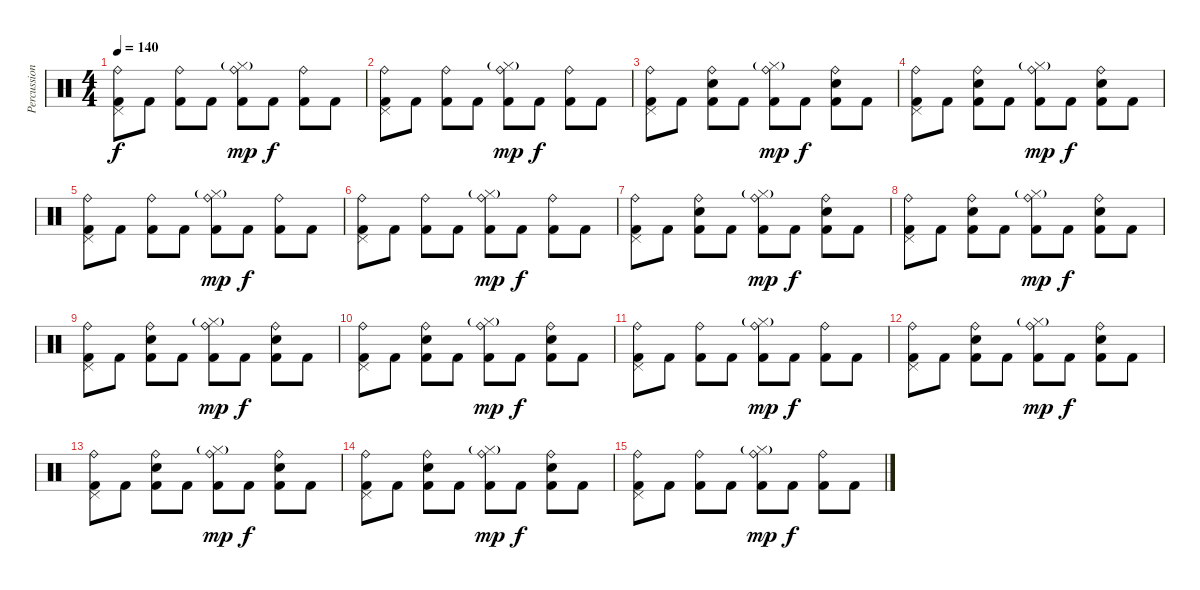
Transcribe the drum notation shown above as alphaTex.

\track ("Percussions" "Percussion") {instrument percussion}
\staff {score}
\articulation defaults
\ts (4 4)
\tempo 140
\clef neutral
\ks c
("Ride (bell)" "Pedal Hi-Hat (hit)" "Kick (hit) 2").8{dy f} "Kick (hit) 2".8 ("Ride (bell)" "Kick (hit) 2").8 "Kick (hit) 2".8 ("Ride (bell)" "Hi-Hat (closed)"{g} "Kick (hit) 2").8{dy mp} "Kick (hit) 2".8{dy f} ("Ride (bell)" "Kick (hit) 2").8 "Kick (hit) 2".8 |
("Ride (bell)" "Pedal Hi-Hat (hit)" "Kick (hit) 2").8 "Kick (hit) 2".8 ("Ride (bell)" "Kick (hit) 2").8 "Kick (hit) 2".8 ("Ride (bell)" "Hi-Hat (closed)"{g} "Kick (hit) 2").8{dy mp} "Kick (hit) 2".8{dy f} ("Ride (bell)" "Kick (hit) 2").8 "Kick (hit) 2".8 |
("Ride (bell)" "Pedal Hi-Hat (hit)" "Kick (hit) 2").8 "Kick (hit) 2".8 ("Ride (bell)" "Snare (hit) 2" "Kick (hit) 2").8 "Kick (hit) 2".8 ("Ride (bell)" "Hi-Hat (closed)"{g} "Kick (hit) 2").8{dy mp} "Kick (hit) 2".8{dy f} ("Ride (bell)" "Snare (hit) 2" "Kick (hit) 2").8 "Kick (hit) 2".8 |
("Ride (bell)" "Pedal Hi-Hat (hit)" "Kick (hit) 2").8 "Kick (hit) 2".8 ("Ride (bell)" "Snare (hit) 2" "Kick (hit) 2").8 "Kick (hit) 2".8 ("Ride (bell)" "Hi-Hat (closed)"{g} "Kick (hit) 2").8{dy mp} "Kick (hit) 2".8{dy f} ("Ride (bell)" "Snare (hit) 2" "Kick (hit) 2").8 "Kick (hit) 2".8 |
("Ride (bell)" "Pedal Hi-Hat (hit)" "Kick (hit) 2").8 "Kick (hit) 2".8 ("Ride (bell)" "Kick (hit) 2").8 "Kick (hit) 2".8 ("Ride (bell)" "Hi-Hat (closed)"{g} "Kick (hit) 2").8{dy mp} "Kick (hit) 2".8{dy f} ("Ride (bell)" "Kick (hit) 2").8 "Kick (hit) 2".8 |
("Ride (bell)" "Pedal Hi-Hat (hit)" "Kick (hit) 2").8 "Kick (hit) 2".8 ("Ride (bell)" "Kick (hit) 2").8 "Kick (hit) 2".8 ("Ride (bell)" "Hi-Hat (closed)"{g} "Kick (hit) 2").8{dy mp} "Kick (hit) 2".8{dy f} ("Ride (bell)" "Kick (hit) 2").8 "Kick (hit) 2".8 |
("Ride (bell)" "Pedal Hi-Hat (hit)" "Kick (hit) 2").8 "Kick (hit) 2".8 ("Ride (bell)" "Snare (hit) 2" "Kick (hit) 2").8 "Kick (hit) 2".8 ("Ride (bell)" "Hi-Hat (closed)"{g} "Kick (hit) 2").8{dy mp} "Kick (hit) 2".8{dy f} ("Ride (bell)" "Snare (hit) 2" "Kick (hit) 2").8 "Kick (hit) 2".8 |
("Ride (bell)" "Pedal Hi-Hat (hit)" "Kick (hit) 2").8 "Kick (hit) 2".8 ("Ride (bell)" "Snare (hit) 2" "Kick (hit) 2").8 "Kick (hit) 2".8 ("Ride (bell)" "Hi-Hat (closed)"{g} "Kick (hit) 2").8{dy mp} "Kick (hit) 2".8{dy f} ("Ride (bell)" "Snare (hit) 2" "Kick (hit) 2").8 "Kick (hit) 2".8 |
("Ride (bell)" "Pedal Hi-Hat (hit)" "Kick (hit) 2").8 "Kick (hit) 2".8 ("Ride (bell)" "Snare (hit) 2" "Kick (hit) 2").8 "Kick (hit) 2".8 ("Ride (bell)" "Hi-Hat (closed)"{g} "Kick (hit) 2").8{dy mp} "Kick (hit) 2".8{dy f} ("Ride (bell)" "Snare (hit) 2" "Kick (hit) 2").8 "Kick (hit) 2".8 |
("Ride (bell)" "Pedal Hi-Hat (hit)" "Kick (hit) 2").8 "Kick (hit) 2".8 ("Ride (bell)" "Snare (hit) 2" "Kick (hit) 2").8 "Kick (hit) 2".8 ("Ride (bell)" "Hi-Hat (closed)"{g} "Kick (hit) 2").8{dy mp} "Kick (hit) 2".8{dy f} ("Ride (bell)" "Snare (hit) 2" "Kick (hit) 2").8 "Kick (hit) 2".8 |
("Ride (bell)" "Pedal Hi-Hat (hit)" "Kick (hit) 2").8 "Kick (hit) 2".8 ("Ride (bell)" "Kick (hit) 2").8 "Kick (hit) 2".8 ("Ride (bell)" "Hi-Hat (closed)"{g} "Kick (hit) 2").8{dy mp} "Kick (hit) 2".8{dy f} ("Ride (bell)" "Kick (hit) 2").8 "Kick (hit) 2".8 |
("Ride (bell)" "Pedal Hi-Hat (hit)" "Kick (hit) 2").8 "Kick (hit) 2".8 ("Ride (bell)" "Snare (hit) 2" "Kick (hit) 2").8 "Kick (hit) 2".8 ("Ride (bell)" "Hi-Hat (closed)"{g} "Kick (hit) 2").8{dy mp} "Kick (hit) 2".8{dy f} ("Ride (bell)" "Snare (hit) 2" "Kick (hit) 2").8 "Kick (hit) 2".8 |
("Ride (bell)" "Pedal Hi-Hat (hit)" "Kick (hit) 2").8 "Kick (hit) 2".8 ("Ride (bell)" "Snare (hit) 2" "Kick (hit) 2").8 "Kick (hit) 2".8 ("Ride (bell)" "Hi-Hat (closed)"{g} "Kick (hit) 2").8{dy mp} "Kick (hit) 2".8{dy f} ("Ride (bell)" "Snare (hit) 2" "Kick (hit) 2").8 "Kick (hit) 2".8 |
("Ride (bell)" "Pedal Hi-Hat (hit)" "Kick (hit) 2").8 "Kick (hit) 2".8 ("Ride (bell)" "Snare (hit) 2" "Kick (hit) 2").8 "Kick (hit) 2".8 ("Ride (bell)" "Hi-Hat (closed)"{g} "Kick (hit) 2").8{dy mp} "Kick (hit) 2".8{dy f} ("Ride (bell)" "Snare (hit) 2" "Kick (hit) 2").8 "Kick (hit) 2".8 |
("Ride (bell)" "Pedal Hi-Hat (hit)" "Kick (hit) 2").8 "Kick (hit) 2".8 ("Ride (bell)" "Kick (hit) 2").8 "Kick (hit) 2".8 ("Ride (bell)" "Hi-Hat (closed)"{g} "Kick (hit) 2").8{dy mp} "Kick (hit) 2".8{dy f} ("Ride (bell)" "Kick (hit) 2").8 "Kick (hit) 2".8
